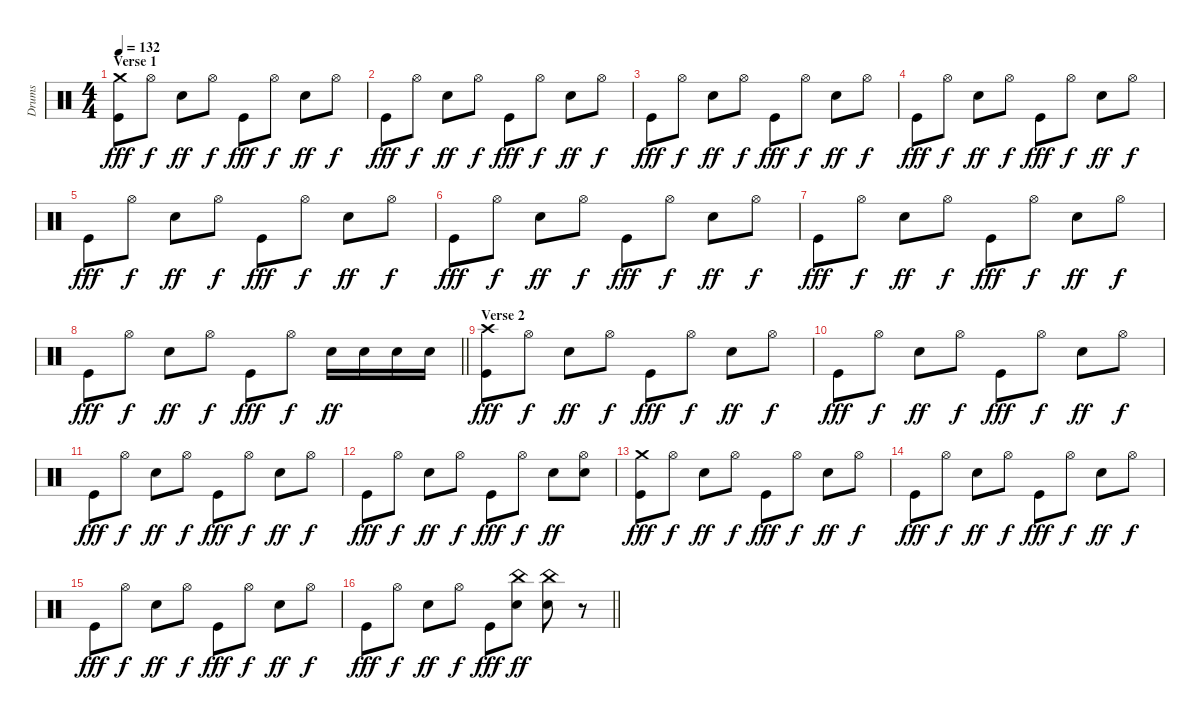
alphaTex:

\track ("Drums" "Drums") {instrument percussion}
\staff {score}
\articulation defaults
\ts (4 4)
\section ("" "Verse 1")
\tempo 132
\clef neutral
\ks c
("Crash medium (hit)" "Kick (hit)").8{dy fff} "Hi-Hat (open)".8{dy f} "Snare (hit) 2".8{dy ff} "Hi-Hat (open)".8{dy f} "Kick (hit)".8{dy fff} "Hi-Hat (open)".8{dy f} "Snare (hit) 2".8{dy ff} "Hi-Hat (open)".8{dy f} |
"Kick (hit)".8{dy fff} "Hi-Hat (open)".8{dy f} "Snare (hit) 2".8{dy ff} "Hi-Hat (open)".8{dy f} "Kick (hit)".8{dy fff} "Hi-Hat (open)".8{dy f} "Snare (hit) 2".8{dy ff} "Hi-Hat (open)".8{dy f} |
"Kick (hit)".8{dy fff} "Hi-Hat (open)".8{dy f} "Snare (hit) 2".8{dy ff} "Hi-Hat (open)".8{dy f} "Kick (hit)".8{dy fff} "Hi-Hat (open)".8{dy f} "Snare (hit) 2".8{dy ff} "Hi-Hat (open)".8{dy f} |
"Kick (hit)".8{dy fff} "Hi-Hat (open)".8{dy f} "Snare (hit) 2".8{dy ff} "Hi-Hat (open)".8{dy f} "Kick (hit)".8{dy fff} "Hi-Hat (open)".8{dy f} "Snare (hit) 2".8{dy ff} "Hi-Hat (open)".8{dy f} |
"Kick (hit)".8{dy fff} "Hi-Hat (open)".8{dy f} "Snare (hit) 2".8{dy ff} "Hi-Hat (open)".8{dy f} "Kick (hit)".8{dy fff} "Hi-Hat (open)".8{dy f} "Snare (hit) 2".8{dy ff} "Hi-Hat (open)".8{dy f} |
"Kick (hit)".8{dy fff} "Hi-Hat (open)".8{dy f} "Snare (hit) 2".8{dy ff} "Hi-Hat (open)".8{dy f} "Kick (hit)".8{dy fff} "Hi-Hat (open)".8{dy f} "Snare (hit) 2".8{dy ff} "Hi-Hat (open)".8{dy f} |
"Kick (hit)".8{dy fff} "Hi-Hat (open)".8{dy f} "Snare (hit) 2".8{dy ff} "Hi-Hat (open)".8{dy f} "Kick (hit)".8{dy fff} "Hi-Hat (open)".8{dy f} "Snare (hit) 2".8{dy ff} "Hi-Hat (open)".8{dy f} |
\barLineRight lightlight "Kick (hit)".8{dy fff} "Hi-Hat (open)".8{dy f} "Snare (hit) 2".8{dy ff} "Hi-Hat (open)".8{dy f} "Kick (hit)".8{dy fff} "Hi-Hat (open)".8{dy f} "Snare (hit) 2".16{dy ff} "Snare (hit) 2".16 "Snare (hit) 2".16 "Snare (hit) 2".16
|
\section ("" "Verse 2")
("Crash high (hit)" "Kick (hit)").8{dy fff} "Hi-Hat (open)".8{dy f} "Snare (hit) 2".8{dy ff} "Hi-Hat (open)".8{dy f} "Kick (hit)".8{dy fff} "Hi-Hat (open)".8{dy f} "Snare (hit) 2".8{dy ff} "Hi-Hat (open)".8{dy f} |
"Kick (hit)".8{dy fff} "Hi-Hat (open)".8{dy f} "Snare (hit) 2".8{dy ff} "Hi-Hat (open)".8{dy f} "Kick (hit)".8{dy fff} "Hi-Hat (open)".8{dy f} "Snare (hit) 2".8{dy ff} "Hi-Hat (open)".8{dy f} |
"Kick (hit)".8{dy fff} "Hi-Hat (open)".8{dy f} "Snare (hit) 2".8{dy ff} "Hi-Hat (open)".8{dy f} "Kick (hit)".8{dy fff} "Hi-Hat (open)".8{dy f} "Snare (hit) 2".8{dy ff} "Hi-Hat (open)".8{dy f} |
"Kick (hit)".8{dy fff} "Hi-Hat (open)".8{dy f} "Snare (hit) 2".8{dy ff} "Hi-Hat (open)".8{dy f} "Kick (hit)".8{dy fff} "Hi-Hat (open)".8{dy f} "Snare (hit) 2".8{dy ff} ("Hi-Hat (open)" "Snare (hit) 2").8 |
("Crash medium (hit)" "Kick (hit)").8{dy fff} "Hi-Hat (open)".8{dy f} "Snare (hit) 2".8{dy ff} "Hi-Hat (open)".8{dy f} "Kick (hit)".8{dy fff} "Hi-Hat (open)".8{dy f} "Snare (hit) 2".8{dy ff} "Hi-Hat (open)".8{dy f} |
"Kick (hit)".8{dy fff} "Hi-Hat (open)".8{dy f} "Snare (hit) 2".8{dy ff} "Hi-Hat (open)".8{dy f} "Kick (hit)".8{dy fff} "Hi-Hat (open)".8{dy f} "Snare (hit) 2".8{dy ff} "Hi-Hat (open)".8{dy f} |
"Kick (hit)".8{dy fff} "Hi-Hat (open)".8{dy f} "Snare (hit) 2".8{dy ff} "Hi-Hat (open)".8{dy f} "Kick (hit)".8{dy fff} "Hi-Hat (open)".8{dy f} "Snare (hit) 2".8{dy ff} "Hi-Hat (open)".8{dy f} |
\barLineRight lightlight "Kick (hit)".8{dy fff} "Hi-Hat (open)".8{dy f} "Snare (hit) 2".8{dy ff} "Hi-Hat (open)".8{dy f} "Kick (hit)".8{dy fff}
("China (hit)" "Snare (hit) 2").8{dy ff} ("China (hit)" "Snare (hit) 2").8 r.8
